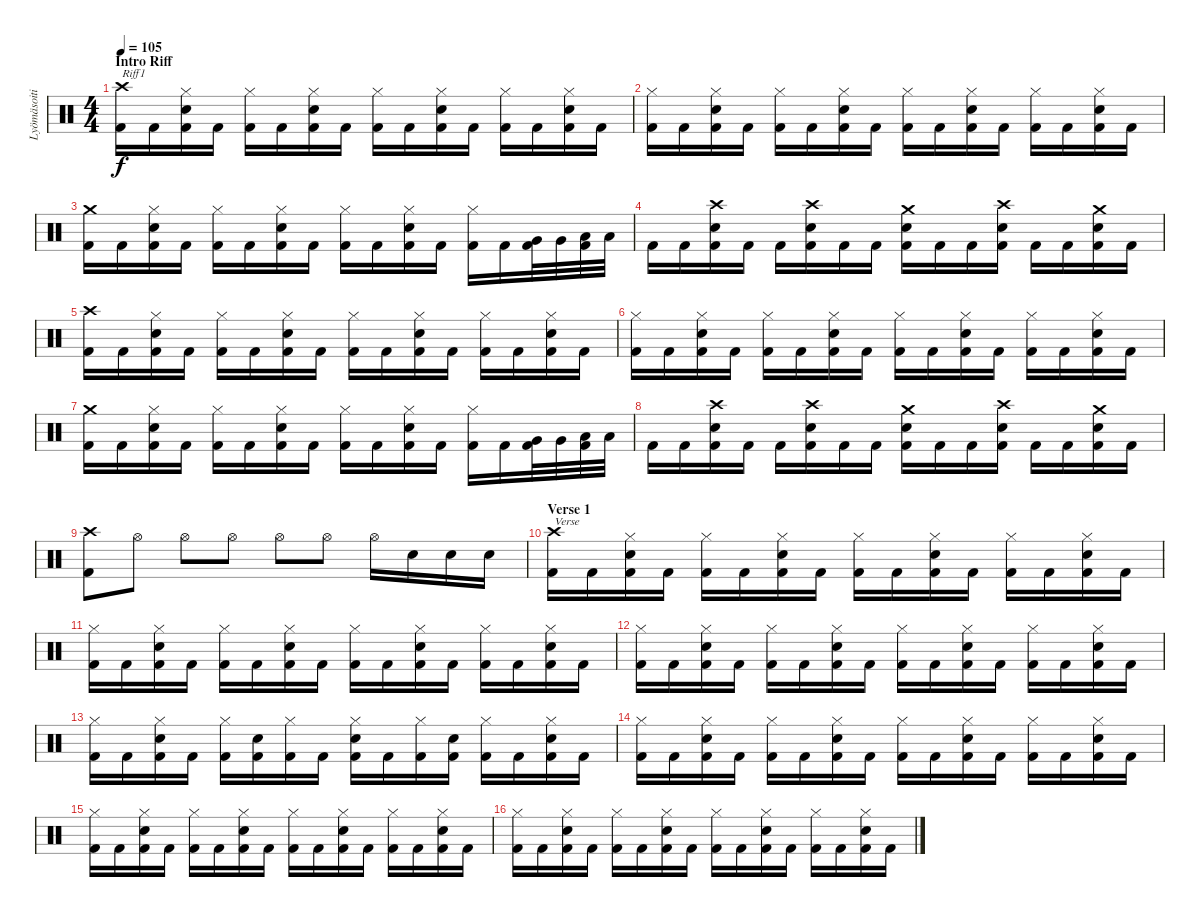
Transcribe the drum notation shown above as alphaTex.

\track ("Lyömäsoitin" "Lyömäsoiti") {instrument percussion}
\staff {score}
\articulation defaults
\ts (4 4)
\section ("" "Intro Riff")
\tempo 105
\clef neutral
\ks c
("Crash high (hit)" "Kick (hit) 2").16{txt "Riff1" dy f} "Kick (hit) 2".16 ("Hi-Hat (closed)" "Snare (hit) 2" "Kick (hit) 2").16 "Kick (hit) 2".16 ("Hi-Hat (closed)" "Kick (hit) 2").16 "Kick (hit) 2".16 ("Hi-Hat (closed)" "Snare (hit) 2" "Kick (hit) 2").16 "Kick (hit) 2".16 ("Hi-Hat (closed)" "Kick (hit) 2").16 "Kick (hit) 2".16 ("Hi-Hat (closed)" "Snare (hit) 2" "Kick (hit) 2").16 "Kick (hit) 2".16 ("Hi-Hat (closed)" "Kick (hit) 2").16 "Kick (hit) 2".16 ("Hi-Hat (closed)" "Snare (hit) 2" "Kick (hit) 2").16 "Kick (hit) 2".16 |
("Hi-Hat (closed)" "Kick (hit) 2").16 "Kick (hit) 2".16 ("Hi-Hat (closed)" "Snare (hit) 2" "Kick (hit) 2").16 "Kick (hit) 2".16 ("Hi-Hat (closed)" "Kick (hit) 2").16 "Kick (hit) 2".16 ("Hi-Hat (closed)" "Snare (hit) 2" "Kick (hit) 2").16 "Kick (hit) 2".16 ("Hi-Hat (closed)" "Kick (hit) 2").16 "Kick (hit) 2".16 ("Hi-Hat (closed)" "Snare (hit) 2" "Kick (hit) 2").16 "Kick (hit) 2".16 ("Hi-Hat (closed)" "Kick (hit) 2").16 "Kick (hit) 2".16 ("Hi-Hat (closed)" "Snare (hit) 2" "Kick (hit) 2").16 "Kick (hit) 2".16 |
("Crash medium (hit)" "Kick (hit) 2").16 "Kick (hit) 2".16 ("Hi-Hat (closed)" "Snare (hit) 2" "Kick (hit) 2").16 "Kick (hit) 2".16 ("Hi-Hat (closed)" "Kick (hit) 2").16 "Kick (hit) 2".16 ("Hi-Hat (closed)" "Snare (hit) 2" "Kick (hit) 2").16 "Kick (hit) 2".16 ("Hi-Hat (closed)" "Kick (hit) 2").16 "Kick (hit) 2".16 ("Hi-Hat (closed)" "Snare (hit) 2" "Kick (hit) 2").16 "Kick (hit) 2".16 ("Hi-Hat (closed)" "Kick (hit) 2").16 "Kick (hit) 2".16 ("Very Low Tom (hit)" "Kick (hit) 2").32 "Very Low Tom (hit)".32 ("Low Floor Tom (hit)" "Kick (hit) 2").32 "Low Floor Tom (hit)".32 |
"Kick (hit) 2".16 "Kick (hit) 2".16 ("Crash high (hit)" "Snare (hit) 2" "Kick (hit) 2").16 "Kick (hit) 2".16 "Kick (hit) 2".16 ("Crash high (hit)" "Snare (hit) 2" "Kick (hit) 2").16 "Kick (hit) 2".16 "Kick (hit) 2".16 ("Crash medium (hit)" "Snare (hit) 2" "Kick (hit) 2").16 "Kick (hit) 2".16 "Kick (hit) 2".16 ("Crash high (hit)" "Snare (hit) 2" "Kick (hit) 2").16 "Kick (hit) 2".16 "Kick (hit) 2".16 ("Crash medium (hit)" "Snare (hit) 2" "Kick (hit) 2").16 "Kick (hit) 2".16 |
("Crash high (hit)" "Kick (hit) 2").16 "Kick (hit) 2".16 ("Hi-Hat (closed)" "Snare (hit) 2" "Kick (hit) 2").16 "Kick (hit) 2".16 ("Hi-Hat (closed)" "Kick (hit) 2").16 "Kick (hit) 2".16 ("Hi-Hat (closed)" "Snare (hit) 2" "Kick (hit) 2").16 "Kick (hit) 2".16 ("Hi-Hat (closed)" "Kick (hit) 2").16 "Kick (hit) 2".16 ("Hi-Hat (closed)" "Snare (hit) 2" "Kick (hit) 2").16 "Kick (hit) 2".16 ("Hi-Hat (closed)" "Kick (hit) 2").16 "Kick (hit) 2".16 ("Hi-Hat (closed)" "Snare (hit) 2" "Kick (hit) 2").16 "Kick (hit) 2".16 |
("Hi-Hat (closed)" "Kick (hit) 2").16 "Kick (hit) 2".16 ("Hi-Hat (closed)" "Snare (hit) 2" "Kick (hit) 2").16 "Kick (hit) 2".16 ("Hi-Hat (closed)" "Kick (hit) 2").16 "Kick (hit) 2".16 ("Hi-Hat (closed)" "Snare (hit) 2" "Kick (hit) 2").16 "Kick (hit) 2".16 ("Hi-Hat (closed)" "Kick (hit) 2").16 "Kick (hit) 2".16 ("Hi-Hat (closed)" "Snare (hit) 2" "Kick (hit) 2").16 "Kick (hit) 2".16 ("Hi-Hat (closed)" "Kick (hit) 2").16 "Kick (hit) 2".16 ("Hi-Hat (closed)" "Snare (hit) 2" "Kick (hit) 2").16 "Kick (hit) 2".16 |
("Crash medium (hit)" "Kick (hit) 2").16 "Kick (hit) 2".16 ("Hi-Hat (closed)" "Snare (hit) 2" "Kick (hit) 2").16 "Kick (hit) 2".16 ("Hi-Hat (closed)" "Kick (hit) 2").16 "Kick (hit) 2".16 ("Hi-Hat (closed)" "Snare (hit) 2" "Kick (hit) 2").16 "Kick (hit) 2".16 ("Hi-Hat (closed)" "Kick (hit) 2").16 "Kick (hit) 2".16 ("Hi-Hat (closed)" "Snare (hit) 2" "Kick (hit) 2").16 "Kick (hit) 2".16 ("Hi-Hat (closed)" "Kick (hit) 2").16 "Kick (hit) 2".16 ("Very Low Tom (hit)" "Kick (hit) 2").32 "Very Low Tom (hit)".32 ("Low Floor Tom (hit)" "Kick (hit) 2").32 "Low Floor Tom (hit)".32 |
"Kick (hit) 2".16 "Kick (hit) 2".16 ("Crash high (hit)" "Snare (hit) 2" "Kick (hit) 2").16 "Kick (hit) 2".16 "Kick (hit) 2".16 ("Crash high (hit)" "Snare (hit) 2" "Kick (hit) 2").16 "Kick (hit) 2".16 "Kick (hit) 2".16 ("Crash medium (hit)" "Snare (hit) 2" "Kick (hit) 2").16 "Kick (hit) 2".16 "Kick (hit) 2".16 ("Crash high (hit)" "Snare (hit) 2" "Kick (hit) 2").16 "Kick (hit) 2".16 "Kick (hit) 2".16 ("Crash medium (hit)" "Snare (hit) 2" "Kick (hit) 2").16 "Kick (hit) 2".16 |
("Crash high (hit)" "Kick (hit) 2").8 "Hi-Hat (open)".8 "Hi-Hat (open)".8 "Hi-Hat (open)".8 "Hi-Hat (open)".8 "Hi-Hat (open)".8 "Hi-Hat (open)".16 "Snare (hit) 2".16 "Snare (hit) 2".16 "Snare (hit) 2".16 |
\section ("" "Verse 1")
("Crash high (hit)" "Kick (hit) 2").16{txt "Verse"} "Kick (hit) 2".16 ("Hi-Hat (closed)" "Snare (hit) 2" "Kick (hit) 2").16 "Kick (hit) 2".16 ("Hi-Hat (closed)" "Kick (hit) 2").16 "Kick (hit) 2".16 ("Hi-Hat (closed)" "Snare (hit) 2" "Kick (hit) 2").16 "Kick (hit) 2".16 ("Hi-Hat (closed)" "Kick (hit) 2").16 "Kick (hit) 2".16 ("Hi-Hat (closed)" "Snare (hit) 2" "Kick (hit) 2").16 "Kick (hit) 2".16 ("Hi-Hat (closed)" "Kick (hit) 2").16 "Kick (hit) 2".16 ("Hi-Hat (closed)" "Snare (hit) 2" "Kick (hit) 2").16 "Kick (hit) 2".16 |
("Hi-Hat (closed)" "Kick (hit) 2").16 "Kick (hit) 2".16 ("Hi-Hat (closed)" "Snare (hit) 2" "Kick (hit) 2").16 "Kick (hit) 2".16 ("Hi-Hat (closed)" "Kick (hit) 2").16 "Kick (hit) 2".16 ("Hi-Hat (closed)" "Snare (hit) 2" "Kick (hit) 2").16 "Kick (hit) 2".16 ("Hi-Hat (closed)" "Kick (hit) 2").16 "Kick (hit) 2".16 ("Hi-Hat (closed)" "Snare (hit) 2" "Kick (hit) 2").16 "Kick (hit) 2".16 ("Hi-Hat (closed)" "Kick (hit) 2").16 "Kick (hit) 2".16 ("Hi-Hat (closed)" "Snare (hit) 2" "Kick (hit) 2").16 "Kick (hit) 2".16 |
("Hi-Hat (closed)" "Kick (hit) 2").16 "Kick (hit) 2".16 ("Hi-Hat (closed)" "Snare (hit) 2" "Kick (hit) 2").16 "Kick (hit) 2".16 ("Hi-Hat (closed)" "Kick (hit) 2").16 "Kick (hit) 2".16 ("Hi-Hat (closed)" "Snare (hit) 2" "Kick (hit) 2").16 "Kick (hit) 2".16 ("Hi-Hat (closed)" "Kick (hit) 2").16 "Kick (hit) 2".16 ("Hi-Hat (closed)" "Snare (hit) 2" "Kick (hit) 2").16 "Kick (hit) 2".16 ("Hi-Hat (closed)" "Kick (hit) 2").16 "Kick (hit) 2".16 ("Hi-Hat (closed)" "Snare (hit) 2" "Kick (hit) 2").16 "Kick (hit) 2".16 |
("Hi-Hat (closed)" "Kick (hit) 2").16 "Kick (hit) 2".16 ("Hi-Hat (closed)" "Snare (hit) 2" "Kick (hit) 2").16 "Kick (hit) 2".16 ("Hi-Hat (closed)" "Kick (hit) 2").16 ("Snare (hit) 2" "Kick (hit) 2").16 ("Hi-Hat (closed)" "Kick (hit) 2").16 "Kick (hit) 2".16 ("Hi-Hat (closed)" "Snare (hit) 2" "Kick (hit) 2").16 "Kick (hit) 2".16 ("Hi-Hat (closed)" "Kick (hit) 2").16 ("Snare (hit) 2" "Kick (hit) 2").16 ("Hi-Hat (closed)" "Kick (hit) 2").16 "Kick (hit) 2".16 ("Hi-Hat (closed)" "Snare (hit) 2" "Kick (hit) 2").16 "Kick (hit) 2".16 |
("Hi-Hat (closed)" "Kick (hit) 2").16 "Kick (hit) 2".16 ("Hi-Hat (closed)" "Snare (hit) 2" "Kick (hit) 2").16 "Kick (hit) 2".16 ("Hi-Hat (closed)" "Kick (hit) 2").16 "Kick (hit) 2".16 ("Hi-Hat (closed)" "Snare (hit) 2" "Kick (hit) 2").16 "Kick (hit) 2".16 ("Hi-Hat (closed)" "Kick (hit) 2").16 "Kick (hit) 2".16 ("Hi-Hat (closed)" "Snare (hit) 2" "Kick (hit) 2").16 "Kick (hit) 2".16 ("Hi-Hat (closed)" "Kick (hit) 2").16 "Kick (hit) 2".16 ("Hi-Hat (closed)" "Snare (hit) 2" "Kick (hit) 2").16 "Kick (hit) 2".16 |
("Hi-Hat (closed)" "Kick (hit) 2").16 "Kick (hit) 2".16 ("Hi-Hat (closed)" "Snare (hit) 2" "Kick (hit) 2").16 "Kick (hit) 2".16 ("Hi-Hat (closed)" "Kick (hit) 2").16 "Kick (hit) 2".16 ("Hi-Hat (closed)" "Snare (hit) 2" "Kick (hit) 2").16 "Kick (hit) 2".16 ("Hi-Hat (closed)" "Kick (hit) 2").16 "Kick (hit) 2".16 ("Hi-Hat (closed)" "Snare (hit) 2" "Kick (hit) 2").16 "Kick (hit) 2".16 ("Hi-Hat (closed)" "Kick (hit) 2").16 "Kick (hit) 2".16 ("Hi-Hat (closed)" "Snare (hit) 2" "Kick (hit) 2").16 "Kick (hit) 2".16 |
("Hi-Hat (closed)" "Kick (hit) 2").16 "Kick (hit) 2".16 ("Hi-Hat (closed)" "Snare (hit) 2" "Kick (hit) 2").16 "Kick (hit) 2".16 ("Hi-Hat (closed)" "Kick (hit) 2").16 "Kick (hit) 2".16 ("Hi-Hat (closed)" "Snare (hit) 2" "Kick (hit) 2").16 "Kick (hit) 2".16 ("Hi-Hat (closed)" "Kick (hit) 2").16 "Kick (hit) 2".16 ("Hi-Hat (closed)" "Snare (hit) 2" "Kick (hit) 2").16 "Kick (hit) 2".16 ("Hi-Hat (closed)" "Kick (hit) 2").16 "Kick (hit) 2".16 ("Hi-Hat (closed)" "Snare (hit) 2" "Kick (hit) 2").16 "Kick (hit) 2".16
